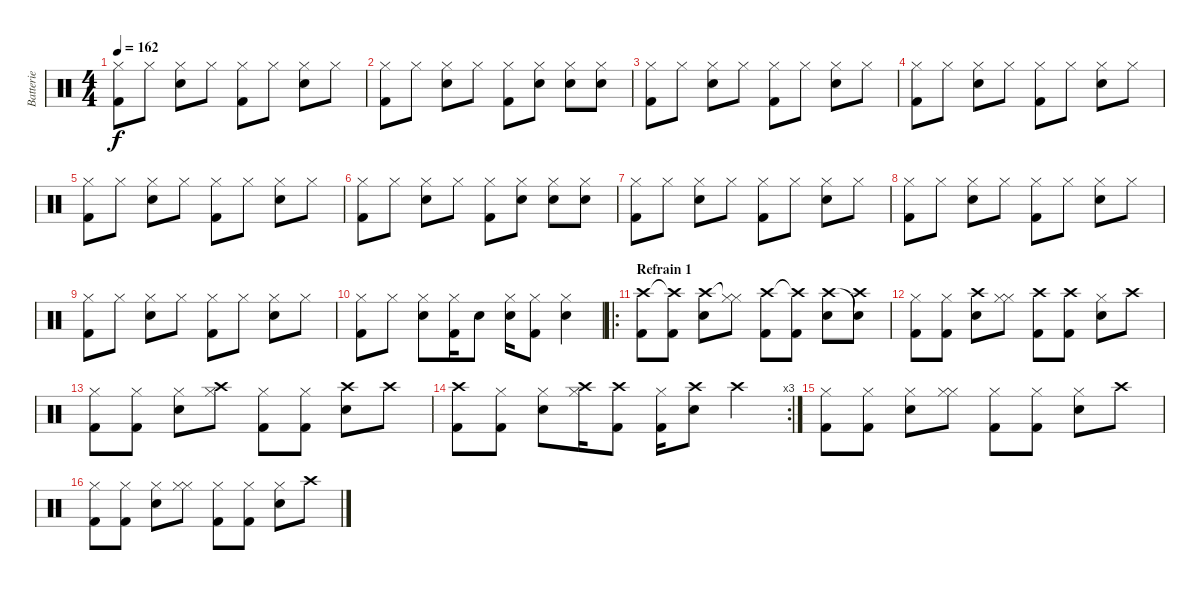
\track ("Batterie" "Batterie") {instrument percussion}
\staff {score}
\articulation defaults
\ts (4 4)
\tempo 162
\clef neutral
\ks c
("Kick (hit) 2" "Hi-Hat (closed)").8{dy f} "Hi-Hat (closed)".8 ("Snare (hit) 2" "Hi-Hat (closed)").8 "Hi-Hat (closed)".8 ("Kick (hit) 2" "Hi-Hat (closed)").8 "Hi-Hat (closed)".8 ("Snare (hit) 2" "Hi-Hat (closed)").8 "Hi-Hat (closed)".8 |
("Kick (hit) 2" "Hi-Hat (closed)").8 "Hi-Hat (closed)".8 ("Snare (hit) 2" "Hi-Hat (closed)").8 "Hi-Hat (closed)".8 ("Kick (hit) 2" "Hi-Hat (closed)").8 ("Snare (hit) 2" "Hi-Hat (closed)").8 ("Snare (hit) 2" "Hi-Hat (closed)").8 ("Snare (hit) 2" "Hi-Hat (closed)").8 |
("Kick (hit) 2" "Hi-Hat (closed)").8 "Hi-Hat (closed)".8 ("Snare (hit) 2" "Hi-Hat (closed)").8 "Hi-Hat (closed)".8 ("Kick (hit) 2" "Hi-Hat (closed)").8 "Hi-Hat (closed)".8 ("Snare (hit) 2" "Hi-Hat (closed)").8 "Hi-Hat (closed)".8 |
("Kick (hit) 2" "Hi-Hat (closed)").8 "Hi-Hat (closed)".8 ("Snare (hit) 2" "Hi-Hat (closed)").8 "Hi-Hat (closed)".8 ("Kick (hit) 2" "Hi-Hat (closed)").8 "Hi-Hat (closed)".8 ("Snare (hit) 2" "Hi-Hat (closed)").8 "Hi-Hat (closed)".8 |
("Kick (hit) 2" "Hi-Hat (closed)").8 "Hi-Hat (closed)".8 ("Snare (hit) 2" "Hi-Hat (closed)").8 "Hi-Hat (closed)".8 ("Kick (hit) 2" "Hi-Hat (closed)").8 "Hi-Hat (closed)".8 ("Snare (hit) 2" "Hi-Hat (closed)").8 "Hi-Hat (closed)".8 |
("Kick (hit) 2" "Hi-Hat (closed)").8 "Hi-Hat (closed)".8 ("Snare (hit) 2" "Hi-Hat (closed)").8 "Hi-Hat (closed)".8 ("Kick (hit) 2" "Hi-Hat (closed)").8 ("Snare (hit) 2" "Hi-Hat (closed)").8 ("Snare (hit) 2" "Hi-Hat (closed)").8 ("Snare (hit) 2" "Hi-Hat (closed)").8 |
("Kick (hit) 2" "Hi-Hat (closed)").8 "Hi-Hat (closed)".8 ("Snare (hit) 2" "Hi-Hat (closed)").8 "Hi-Hat (closed)".8 ("Kick (hit) 2" "Hi-Hat (closed)").8 "Hi-Hat (closed)".8 ("Snare (hit) 2" "Hi-Hat (closed)").8 "Hi-Hat (closed)".8 |
("Kick (hit) 2" "Hi-Hat (closed)").8 "Hi-Hat (closed)".8 ("Snare (hit) 2" "Hi-Hat (closed)").8 "Hi-Hat (closed)".8 ("Kick (hit) 2" "Hi-Hat (closed)").8 "Hi-Hat (closed)".8 ("Snare (hit) 2" "Hi-Hat (closed)").8 "Hi-Hat (closed)".8 |
("Kick (hit) 2" "Hi-Hat (closed)").8 "Hi-Hat (closed)".8 ("Snare (hit) 2" "Hi-Hat (closed)").8 "Hi-Hat (closed)".8 ("Kick (hit) 2" "Hi-Hat (closed)").8 "Hi-Hat (closed)".8 ("Snare (hit) 2" "Hi-Hat (closed)").8 "Hi-Hat (closed)".8 |
("Kick (hit) 2" "Hi-Hat (closed)").8 "Hi-Hat (closed)".8 ("Snare (hit) 2" "Hi-Hat (closed)").8 ("Kick (hit) 2" "Hi-Hat (closed)").16 "Snare (hit) 2".8 ("Snare (hit) 2" "Hi-Hat (closed)").16 ("Kick (hit) 2" "Hi-Hat (closed)").8 ("Snare (hit) 2" "Hi-Hat (closed)").4 |
\ro
\section ("" "Refrain 1")
("Kick (hit) 2" "Crash high (hit)").8 ("Kick (hit) 2" "Crash high (hit)"{t}).8 ("Snare (hit) 2" "Crash high (hit)").8 ("Hi-Hat (closed)" "Hi-Hat (closed)"{t}).8 ("Kick (hit) 2" "Crash high (hit)").8 ("Kick (hit) 2" "Crash high (hit)"{t}).8 ("Snare (hit) 2" "Crash high (hit)").8 ("Crash high (hit)" "Snare (hit)"{t}).8 |
("Kick (hit) 2" "Hi-Hat (closed)").8 ("Kick (hit) 2" "Hi-Hat (closed)").8 ("Snare (hit) 2" "Crash high (hit)").8 ("Hi-Hat (closed)" "Hi-Hat (closed)").8 ("Kick (hit) 2" "Crash high (hit)").8 ("Kick (hit) 2" "Crash high (hit)").8 ("Snare (hit) 2" "Hi-Hat (closed)").8 "Crash high (hit)".8 |
("Kick (hit) 2" "Hi-Hat (closed)").8 ("Kick (hit) 2" "Hi-Hat (closed)").8 ("Snare (hit) 2" "Hi-Hat (closed)").8 ("Hi-Hat (closed)" "Crash high (hit)").8 ("Kick (hit) 2" "Hi-Hat (closed)").8 ("Kick (hit) 2" "Hi-Hat (closed)").8 ("Snare (hit) 2" "Crash high (hit)").8 "Crash high (hit)".8 |
\rc 3
("Kick (hit) 2" "Crash high (hit)").8 ("Kick (hit) 2" "Hi-Hat (closed)").8 ("Snare (hit) 2" "Hi-Hat (closed)").8 ("Hi-Hat (closed)" "Crash high (hit)").16 ("Kick (hit) 2" "Crash high (hit)").8 ("Kick (hit) 2" "Hi-Hat (closed)").16 ("Snare (hit) 2" "Crash high (hit)").8 "Crash high (hit)".4 |
("Kick (hit) 2" "Hi-Hat (closed)").8 ("Kick (hit) 2" "Hi-Hat (closed)").8 ("Snare (hit) 2" "Hi-Hat (closed)").8 ("Hi-Hat (closed)" "Hi-Hat (closed)").8 ("Kick (hit) 2" "Hi-Hat (closed)").8 ("Kick (hit) 2" "Hi-Hat (closed)").8 ("Snare (hit) 2" "Hi-Hat (closed)").8 "Crash high (hit)".8 |
("Kick (hit) 2" "Hi-Hat (closed)").8 ("Kick (hit) 2" "Hi-Hat (closed)").8 ("Snare (hit) 2" "Hi-Hat (closed)").8 ("Hi-Hat (closed)" "Hi-Hat (closed)").8 ("Kick (hit) 2" "Hi-Hat (closed)").8 ("Kick (hit) 2" "Hi-Hat (closed)").8 ("Snare (hit) 2" "Hi-Hat (closed)").8 "Crash high (hit)".8
